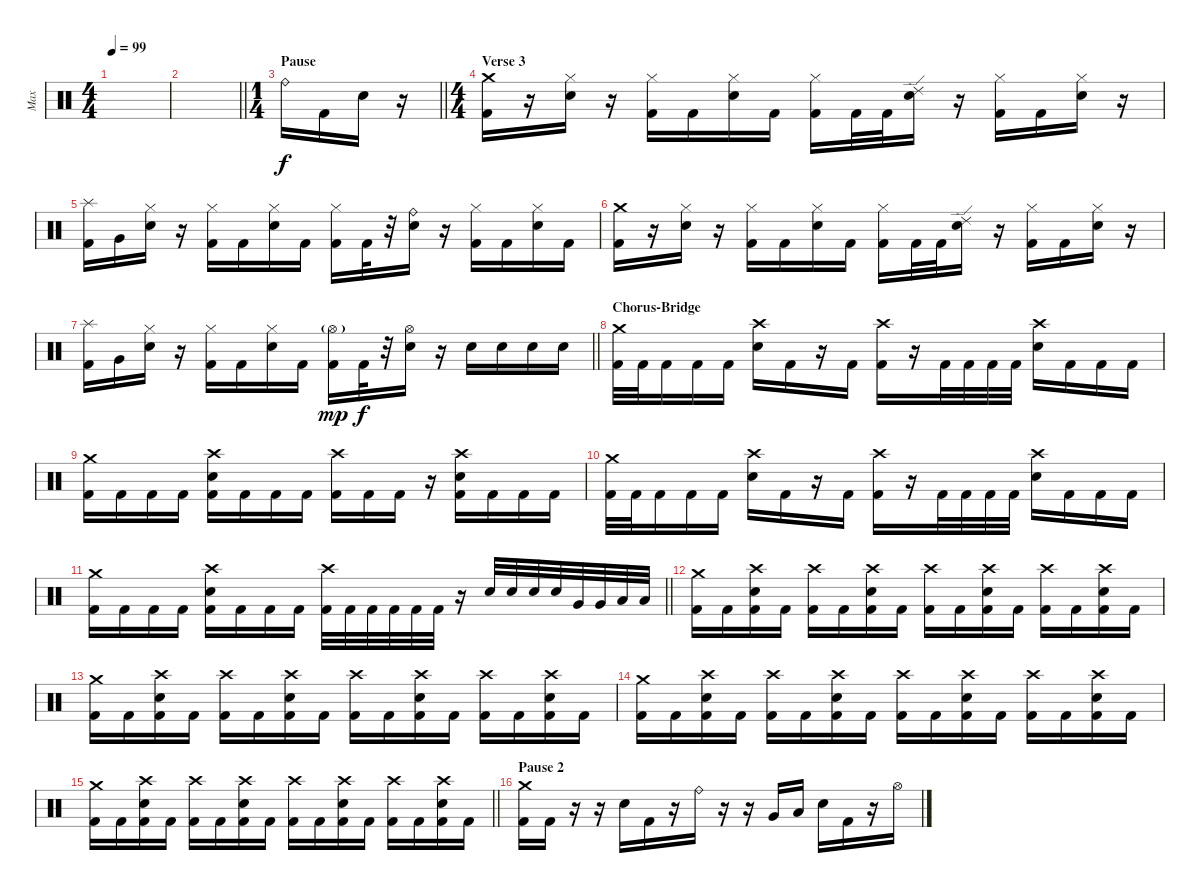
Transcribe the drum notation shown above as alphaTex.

\track ("Max" "Max") {instrument percussion}
\staff {score}
\articulation defaults
\ts (4 4)
\tempo 99
\clef neutral
\ks c
|
\barLineRight lightlight
|
\ts (1 4)
\section ("" "Pause")
\barLineRight lightlight "Ride (bell)".16 "Kick (hit) 2".16 "Electric Snare (hit)".16
r.16 |
\ts (4 4)
\section ("" "Verse 3 ")
("Crash medium (hit)" "Kick (hit) 2").16 r.16 ("Hi-Hat (closed)" "Electric Snare (hit)").16 r.16 ("Hi-Hat (closed)" "Kick (hit) 2").16 "Kick (hit) 2".16 ("Hi-Hat (closed)" "Electric Snare (hit)").16 "Kick (hit) 2".16 ("Hi-Hat (closed)" "Kick (hit) 2").16 "Kick (hit) 2".32 "Kick (hit) 2".32 ("Ride (edge) 2" "Electric Snare (hit)").16 r.16 ("Hi-Hat (closed)" "Kick (hit) 2").16 "Kick (hit) 2".16 ("Hi-Hat (closed)" "Electric Snare (hit)").16 r.16 |
("Splash (hit)" "Kick (hit) 2").16 "Very Low Tom (hit)".16 ("Hi-Hat (closed)" "Electric Snare (hit)").16 r.16 ("Hi-Hat (closed)" "Kick (hit) 2").16 "Kick (hit) 2".16 ("Hi-Hat (closed)" "Electric Snare (hit)").16 "Kick (hit) 2".16 ("Hi-Hat (closed)" "Kick (hit) 2").16 "Kick (hit) 2".32 r.32 ("Ride (bell)" "Electric Snare (hit)").16 r.16 ("Hi-Hat (closed)" "Kick (hit) 2").16 "Kick (hit) 2".16 ("Hi-Hat (closed)" "Electric Snare (hit)").16 "Kick (hit) 2".16 |
("Crash medium (hit)" "Kick (hit) 2").16 r.16 ("Hi-Hat (closed)" "Electric Snare (hit)").16 r.16 ("Hi-Hat (closed)" "Kick (hit) 2").16 "Kick (hit) 2".16 ("Hi-Hat (closed)" "Electric Snare (hit)").16 "Kick (hit) 2".16 ("Hi-Hat (closed)" "Kick (hit) 2").16 "Kick (hit) 2".32 "Kick (hit) 2".32 ("Ride (edge) 2" "Electric Snare (hit)").16 r.16 ("Hi-Hat (closed)" "Kick (hit) 2").16 "Kick (hit) 2".16 ("Hi-Hat (closed)" "Electric Snare (hit)").16 r.16 |
\barLineRight lightlight
("Splash (hit)" "Kick (hit) 2").16 "Very Low Tom (hit)".16 ("Hi-Hat (closed)" "Electric Snare (hit)").16 r.16 ("Hi-Hat (closed)" "Kick (hit) 2").16 "Kick (hit) 2".16 ("Hi-Hat (closed)" "Electric Snare (hit)").16 "Kick (hit) 2".16 ("Hi-Hat (open)"{g} "Kick (hit) 2").16{dy mp} "Kick (hit) 2".32{dy f} r.32 ("Hi-Hat (open)" "Electric Snare (hit)").16 r.16 "Electric Snare (hit)".16 "Electric Snare (hit)".16 "Electric Snare (hit)".16 "Electric Snare (hit)".16 |
\section ("" "Chorus-Bridge")
("Crash medium (hit)" "Kick (hit) 2").32 "Kick (hit) 2".32 "Kick (hit) 2".16 "Kick (hit) 2".16 "Kick (hit) 2".16 ("Crash high (hit)" "Electric Snare (hit)").16 "Kick (hit) 2".16 r.16 "Kick (hit) 2".16 ("Crash high (hit)" "Kick (hit) 2").16 r.16 "Kick (hit) 2".32 "Kick (hit) 2".32 "Kick (hit) 2".32 "Kick (hit) 2".32 ("Crash high (hit)" "Electric Snare (hit)").16 "Kick (hit) 2".16 "Kick (hit) 2".16 "Kick (hit) 2".16 |
("Crash medium (hit)" "Kick (hit) 2").16 "Kick (hit) 2".16 "Kick (hit) 2".16 "Kick (hit) 2".16 ("Crash high (hit)" "Electric Snare (hit)" "Kick (hit) 2").16 "Kick (hit) 2".16 "Kick (hit) 2".16 "Kick (hit) 2".16 ("Crash high (hit)" "Kick (hit) 2").16 "Kick (hit) 2".16 "Kick (hit) 2".16 r.16 ("Crash high (hit)" "Electric Snare (hit)" "Kick (hit) 2").16 "Kick (hit) 2".16 "Kick (hit) 2".16 "Kick (hit) 2".16 |
("Crash medium (hit)" "Kick (hit) 2").32 "Kick (hit) 2".32 "Kick (hit) 2".16 "Kick (hit) 2".16 "Kick (hit) 2".16 ("Crash high (hit)" "Electric Snare (hit)").16 "Kick (hit) 2".16 r.16 "Kick (hit) 2".16 ("Crash high (hit)" "Kick (hit) 2").16 r.16 "Kick (hit) 2".32 "Kick (hit) 2".32 "Kick (hit) 2".32 "Kick (hit) 2".32 ("Crash high (hit)" "Electric Snare (hit)").16 "Kick (hit) 2".16 "Kick (hit) 2".16 "Kick (hit) 2".16 |
\barLineRight lightlight
("Crash medium (hit)" "Kick (hit) 2").16 "Kick (hit) 2".16 "Kick (hit) 2".16 "Kick (hit) 2".16 ("Crash high (hit)" "Electric Snare (hit)" "Kick (hit) 2").16 "Kick (hit) 2".16 "Kick (hit) 2".16 "Kick (hit) 2".16 ("Crash high (hit)" "Kick (hit) 2").32 "Kick (hit) 2".32 "Kick (hit) 2".32 "Kick (hit) 2".32 "Kick (hit) 2".32 "Kick (hit) 2".32 r.16 "Electric Snare (hit)".32 "Electric Snare (hit)".32 "Electric Snare (hit)".32 "Electric Snare (hit)".32 "Very Low Tom (hit)".32 "Very Low Tom (hit)".32 "Low Floor Tom (hit)".32 "Low Floor Tom (hit)".32 |
\section ("" "")
("Crash medium (hit)" "Kick (hit) 2").16 "Kick (hit) 2".16 ("Crash high (hit)" "Electric Snare (hit)" "Kick (hit) 2").16 "Kick (hit) 2".16 ("Crash high (hit)" "Kick (hit) 2").16 "Kick (hit) 2".16 ("Crash high (hit)" "Electric Snare (hit)" "Kick (hit) 2").16 "Kick (hit) 2".16 ("Crash high (hit)" "Kick (hit) 2").16 "Kick (hit) 2".16 ("Crash high (hit)" "Electric Snare (hit)" "Kick (hit) 2").16 "Kick (hit) 2".16 ("Crash high (hit)" "Kick (hit) 2").16 "Kick (hit) 2".16 ("Crash high (hit)" "Electric Snare (hit)" "Kick (hit) 2").16 "Kick (hit) 2".16 |
("Crash medium (hit)" "Kick (hit) 2").16 "Kick (hit) 2".16 ("Crash high (hit)" "Electric Snare (hit)" "Kick (hit) 2").16 "Kick (hit) 2".16 ("Crash high (hit)" "Kick (hit) 2").16 "Kick (hit) 2".16 ("Crash high (hit)" "Electric Snare (hit)" "Kick (hit) 2").16 "Kick (hit) 2".16 ("Crash high (hit)" "Kick (hit) 2").16 "Kick (hit) 2".16 ("Crash high (hit)" "Electric Snare (hit)" "Kick (hit) 2").16 "Kick (hit) 2".16 ("Crash high (hit)" "Kick (hit) 2").16 "Kick (hit) 2".16 ("Crash high (hit)" "Electric Snare (hit)" "Kick (hit) 2").16 "Kick (hit) 2".16 |
("Crash medium (hit)" "Kick (hit) 2").16 "Kick (hit) 2".16 ("Crash high (hit)" "Electric Snare (hit)" "Kick (hit) 2").16 "Kick (hit) 2".16 ("Crash high (hit)" "Kick (hit) 2").16 "Kick (hit) 2".16 ("Crash high (hit)" "Electric Snare (hit)" "Kick (hit) 2").16 "Kick (hit) 2".16 ("Crash high (hit)" "Kick (hit) 2").16 "Kick (hit) 2".16 ("Crash high (hit)" "Electric Snare (hit)" "Kick (hit) 2").16 "Kick (hit) 2".16 ("Crash high (hit)" "Kick (hit) 2").16 "Kick (hit) 2".16 ("Crash high (hit)" "Electric Snare (hit)" "Kick (hit) 2").16 "Kick (hit) 2".16 |
\barLineRight lightlight
("Crash medium (hit)" "Kick (hit) 2").16 "Kick (hit) 2".16 ("Crash high (hit)" "Electric Snare (hit)" "Kick (hit) 2").16 "Kick (hit) 2".16 ("Crash high (hit)" "Kick (hit) 2").16 "Kick (hit) 2".16 ("Crash high (hit)" "Electric Snare (hit)" "Kick (hit) 2").16 "Kick (hit) 2".16 ("Crash high (hit)" "Kick (hit) 2").16 "Kick (hit) 2".16 ("Crash high (hit)" "Electric Snare (hit)" "Kick (hit) 2").16 "Kick (hit) 2".16 ("Crash high (hit)" "Kick (hit) 2").16 "Kick (hit) 2".16 ("Crash high (hit)" "Electric Snare (hit)" "Kick (hit) 2").16 "Kick (hit) 2".16 |
\section ("" "Pause 2")
("Crash medium (hit)" "Kick (hit) 2").16 "Kick (hit) 2".16 r.16 r.16 "Electric Snare (hit)".16 "Kick (hit) 2".16 r.16 "Ride (bell)".16 r.16 r.16 "Very Low Tom (hit)".16 "Low Floor Tom (hit)".16 "Electric Snare (hit)".16 "Kick (hit) 2".16 r.16 "Hi-Hat (open)".16
